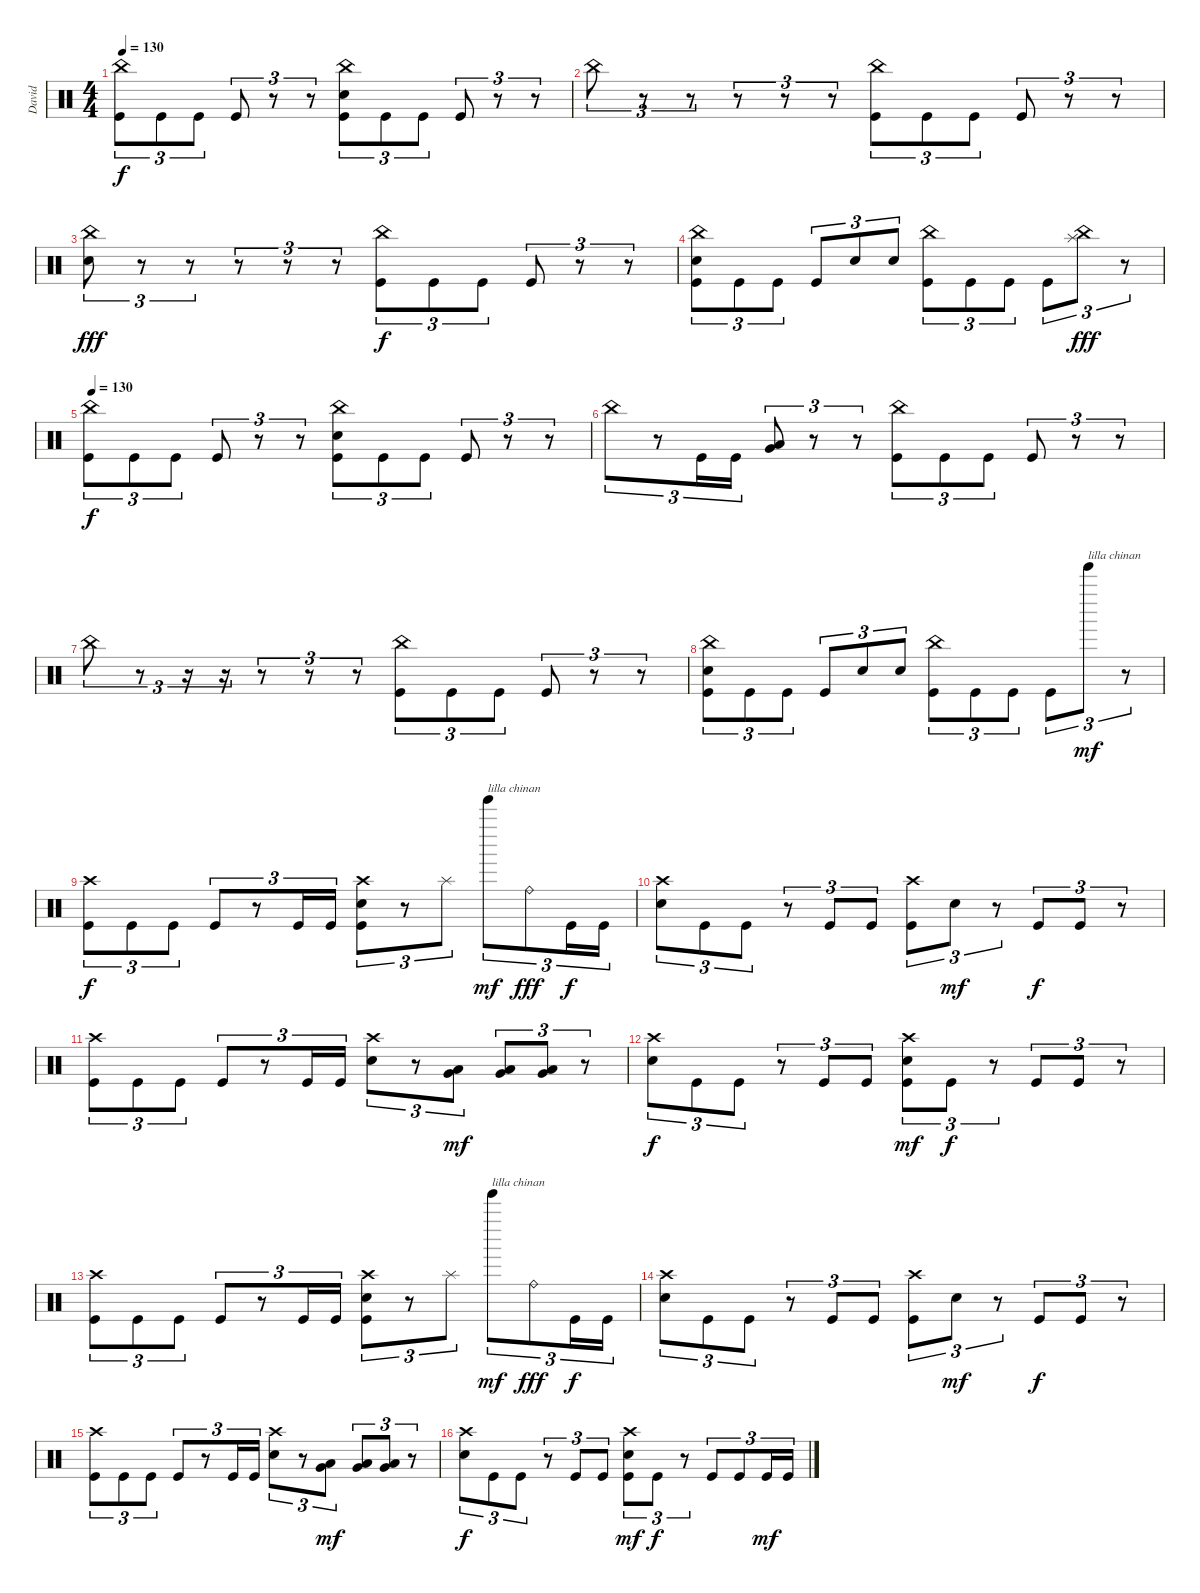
\track ("David" "David") {instrument percussion}
\staff {score}
\articulation defaults
\ts (4 4)
\tempo 130
\clef neutral
\ks c
("China (hit)" "Kick (hit)").8{tu (3 2) dy f} "Kick (hit)".8{tu (3 2)} "Kick (hit)".8{tu (3 2)} "Kick (hit)".8{tu (3 2)} r.8{tu (3 2)} r.8{tu (3 2)} ("China (hit)" "Electric Snare (hit)" "Kick (hit)").8{tu (3 2)} "Kick (hit)".8{tu (3 2)} "Kick (hit)".8{tu (3 2)} "Kick (hit)".8{tu (3 2)} r.8{tu (3 2)} r.8{tu (3 2)} |
"China (hit)".8{tu (3 2)} r.8{tu (3 2)} r.8{tu (3 2)} r.8{tu (3 2)} r.8{tu (3 2)} r.8{tu (3 2)} ("China (hit)" "Kick (hit)").8{tu (3 2)} "Kick (hit)".8{tu (3 2)} "Kick (hit)".8{tu (3 2)} "Kick (hit)".8{tu (3 2)} r.8{tu (3 2)} r.8{tu (3 2)} |
("China (hit)" "Electric Snare (hit)").8{tu (3 2) dy fff} r.8{tu (3 2)} r.8{tu (3 2)} r.8{tu (3 2)} r.8{tu (3 2)} r.8{tu (3 2)} ("China (hit)" "Kick (hit)").8{tu (3 2) dy f} "Kick (hit)".8{tu (3 2)} "Kick (hit)".8{tu (3 2)} "Kick (hit)".8{tu (3 2)} r.8{tu (3 2)} r.8{tu (3 2)} |
("China (hit)" "Electric Snare (hit)" "Kick (hit)").8{tu (3 2)} "Kick (hit)".8{tu (3 2)} "Kick (hit)".8{tu (3 2)} "Kick (hit)".8{tu (3 2)} "Electric Snare (hit)".8{tu (3 2)} "Electric Snare (hit)".8{tu (3 2)} ("China (hit)" "Kick (hit)").8{tu (3 2)} "Kick (hit)".8{tu (3 2)} "Kick (hit)".8{tu (3 2)} "Kick (hit)".8{tu (3 2)} ("China (hit)" "Splash (hit)").8{tu (3 2) dy fff} r.8{tu (3 2)} |
\tempo 130
("China (hit)" "Kick (hit)").8{tu (3 2) dy f} "Kick (hit)".8{tu (3 2)} "Kick (hit)".8{tu (3 2)} "Kick (hit)".8{tu (3 2)} r.8{tu (3 2)} r.8{tu (3 2)} ("China (hit)" "Electric Snare (hit)" "Kick (hit)").8{tu (3 2)} "Kick (hit)".8{tu (3 2)} "Kick (hit)".8{tu (3 2)} "Kick (hit)".8{tu (3 2)} r.8{tu (3 2)} r.8{tu (3 2)} |
"China (hit)".8{tu (3 2)} r.8{tu (3 2)} "Kick (hit)".16{tu (3 2)} "Kick (hit)".16{tu (3 2)} ("Low Tom (hit)" "Very Low Tom (hit)").8{tu (3 2)} r.8{tu (3 2)} r.8{tu (3 2)} ("China (hit)" "Kick (hit)").8{tu (3 2)} "Kick (hit)".8{tu (3 2)} "Kick (hit)".8{tu (3 2)} "Kick (hit)".8{tu (3 2)} r.8{tu (3 2)} r.8{tu (3 2)} |
"China (hit)".8{tu (3 2)} r.8{tu (3 2)} r.16{tu (3 2)} r.16{tu (3 2)} r.8{tu (3 2)} r.8{tu (3 2)} r.8{tu (3 2)} ("China (hit)" "Kick (hit)").8{tu (3 2)} "Kick (hit)".8{tu (3 2)} "Kick (hit)".8{tu (3 2)} "Kick (hit)".8{tu (3 2)} r.8{tu (3 2)} r.8{tu (3 2)} |
("China (hit)" "Electric Snare (hit)" "Kick (hit)").8{tu (3 2)} "Kick (hit)".8{tu (3 2)} "Kick (hit)".8{tu (3 2)} "Kick (hit)".8{tu (3 2)} "Electric Snare (hit)".8{tu (3 2)} "Electric Snare (hit)".8{tu (3 2)} ("China (hit)" "Kick (hit)").8{tu (3 2)} "Kick (hit)".8{tu (3 2)} "Kick (hit)".8{tu (3 2)} "Kick (hit)".8{tu (3 2)} "Tinkle Bell (hit)".8{tu (3 2) txt "lilla chinan" dy mf} r.8{tu (3 2)} |
("Crash high (hit)" "Kick (hit)").8{tu (3 2) dy f} "Kick (hit)".8{tu (3 2)} "Kick (hit)".8{tu (3 2)} "Kick (hit)".8{tu (3 2)} r.8{tu (3 2)} "Kick (hit)".16{tu (3 2)} "Kick (hit)".16{tu (3 2)} ("Crash high (hit)" "Electric Snare (hit)" "Kick (hit)").8{tu (3 2)} r.8{tu (3 2)} "Splash (hit)".8{tu (3 2)} "Tinkle Bell (hit)".8{tu (3 2) txt "lilla chinan" dy mf} "Ride (bell)".8{tu (3 2) dy fff} "Kick (hit)".16{tu (3 2) dy f} "Kick (hit)".16{tu (3 2)} |
("Crash high (hit)" "Electric Snare (hit)").8{tu (3 2)} "Kick (hit)".8{tu (3 2)} "Kick (hit)".8{tu (3 2)} r.8{tu (3 2)} "Kick (hit)".8{tu (3 2)} "Kick (hit)".8{tu (3 2)} ("Crash high (hit)" "Kick (hit)").8{tu (3 2)} "Electric Snare (hit)".8{tu (3 2) dy mf} r.8{tu (3 2)} "Kick (hit)".8{tu (3 2) dy f} "Kick (hit)".8{tu (3 2)} r.8{tu (3 2)} |
("Crash high (hit)" "Kick (hit)").8{tu (3 2)} "Kick (hit)".8{tu (3 2)} "Kick (hit)".8{tu (3 2)} "Kick (hit)".8{tu (3 2)} r.8{tu (3 2)} "Kick (hit)".16{tu (3 2)} "Kick (hit)".16{tu (3 2)} ("Crash high (hit)" "Electric Snare (hit)").8{tu (3 2)} r.8{tu (3 2)} ("Very Low Tom (hit)" "Low Floor Tom (hit)").8{tu (3 2) dy mf} ("Very Low Tom (hit)" "Low Floor Tom (hit)").8{tu (3 2)} ("Very Low Tom (hit)" "Low Floor Tom (hit)").8{tu (3 2)} r.8{tu (3 2)} |
("Crash high (hit)" "Electric Snare (hit)").8{tu (3 2) dy f} "Kick (hit)".8{tu (3 2)} "Kick (hit)".8{tu (3 2)} r.8{tu (3 2)} "Kick (hit)".8{tu (3 2)} "Kick (hit)".8{tu (3 2)} ("Crash high (hit)" "Electric Snare (hit)" "Kick (hit)").8{tu (3 2) dy mf} "Kick (hit)".8{tu (3 2) dy f} r.8{tu (3 2)} "Kick (hit)".8{tu (3 2)} "Kick (hit)".8{tu (3 2)} r.8{tu (3 2)} |
("Crash high (hit)" "Kick (hit)").8{tu (3 2)} "Kick (hit)".8{tu (3 2)} "Kick (hit)".8{tu (3 2)} "Kick (hit)".8{tu (3 2)} r.8{tu (3 2)} "Kick (hit)".16{tu (3 2)} "Kick (hit)".16{tu (3 2)} ("Crash high (hit)" "Electric Snare (hit)" "Kick (hit)").8{tu (3 2)} r.8{tu (3 2)} "Splash (hit)".8{tu (3 2)} "Tinkle Bell (hit)".8{tu (3 2) txt "lilla chinan" dy mf} "Ride (bell)".8{tu (3 2) dy fff} "Kick (hit)".16{tu (3 2) dy f} "Kick (hit)".16{tu (3 2)} |
("Crash high (hit)" "Electric Snare (hit)").8{tu (3 2)} "Kick (hit)".8{tu (3 2)} "Kick (hit)".8{tu (3 2)} r.8{tu (3 2)} "Kick (hit)".8{tu (3 2)} "Kick (hit)".8{tu (3 2)} ("Crash high (hit)" "Kick (hit)").8{tu (3 2)} "Electric Snare (hit)".8{tu (3 2) dy mf} r.8{tu (3 2)} "Kick (hit)".8{tu (3 2) dy f} "Kick (hit)".8{tu (3 2)} r.8{tu (3 2)} |
("Crash high (hit)" "Kick (hit)").8{tu (3 2)} "Kick (hit)".8{tu (3 2)} "Kick (hit)".8{tu (3 2)} "Kick (hit)".8{tu (3 2)} r.8{tu (3 2)} "Kick (hit)".16{tu (3 2)} "Kick (hit)".16{tu (3 2)} ("Crash high (hit)" "Electric Snare (hit)").8{tu (3 2)} r.8{tu (3 2)} ("Very Low Tom (hit)" "Low Floor Tom (hit)").8{tu (3 2) dy mf} ("Very Low Tom (hit)" "Low Floor Tom (hit)").8{tu (3 2)} ("Very Low Tom (hit)" "Low Floor Tom (hit)").8{tu (3 2)} r.8{tu (3 2)} |
("Crash high (hit)" "Electric Snare (hit)").8{tu (3 2) dy f} "Kick (hit)".8{tu (3 2)} "Kick (hit)".8{tu (3 2)} r.8{tu (3 2)} "Kick (hit)".8{tu (3 2)} "Kick (hit)".8{tu (3 2)} ("Crash high (hit)" "Electric Snare (hit)" "Kick (hit)").8{tu (3 2) dy mf} "Kick (hit)".8{tu (3 2) dy f} r.8{tu (3 2)} "Kick (hit)".8{tu (3 2)} "Kick (hit)".8{tu (3 2)} "Kick (hit)".16{tu (3 2) dy mf} "Kick (hit)".16{tu (3 2)}
